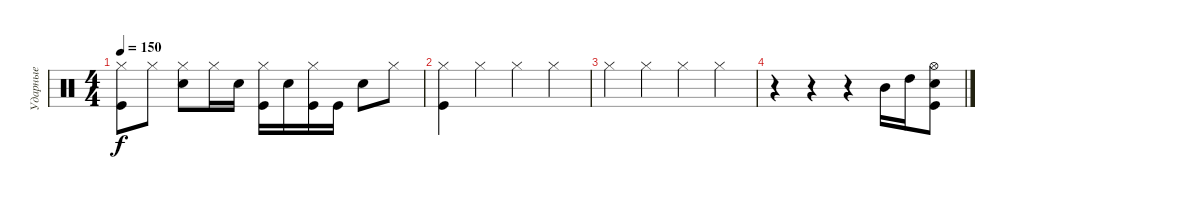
\track ("Ударные" "Ударные") {instrument percussion}
\staff {score}
\articulation defaults
\ts (4 4)
\tempo 150
\clef neutral
\ks c
("Hi-Hat (closed)" "Kick (hit)").8{dy f} "Hi-Hat (closed)".8 ("Hi-Hat (closed)" "Snare (hit) 2").8 "Hi-Hat (closed)".16 "Snare (hit) 2".16 ("Hi-Hat (closed)" "Kick (hit)").16 "Snare (hit) 2".16 ("Kick (hit)" "Hi-Hat (closed)").16 "Kick (hit)".16 "Snare (hit) 2".8 "Hi-Hat (closed)".8 |
("Kick (hit)" "Hi-Hat (closed)").4 "Hi-Hat (closed)".4 "Hi-Hat (closed)".4 "Hi-Hat (closed)".4 |
"Hi-Hat (closed)".4 "Hi-Hat (closed)".4 "Hi-Hat (closed)".4 "Hi-Hat (closed)".4 |
r.4 r.4 r.4 "Mid Tom (hit)".16 "High Tom (hit)".16 ("Hi-Hat (open)" "Kick (hit)" "Snare (hit) 2").8
